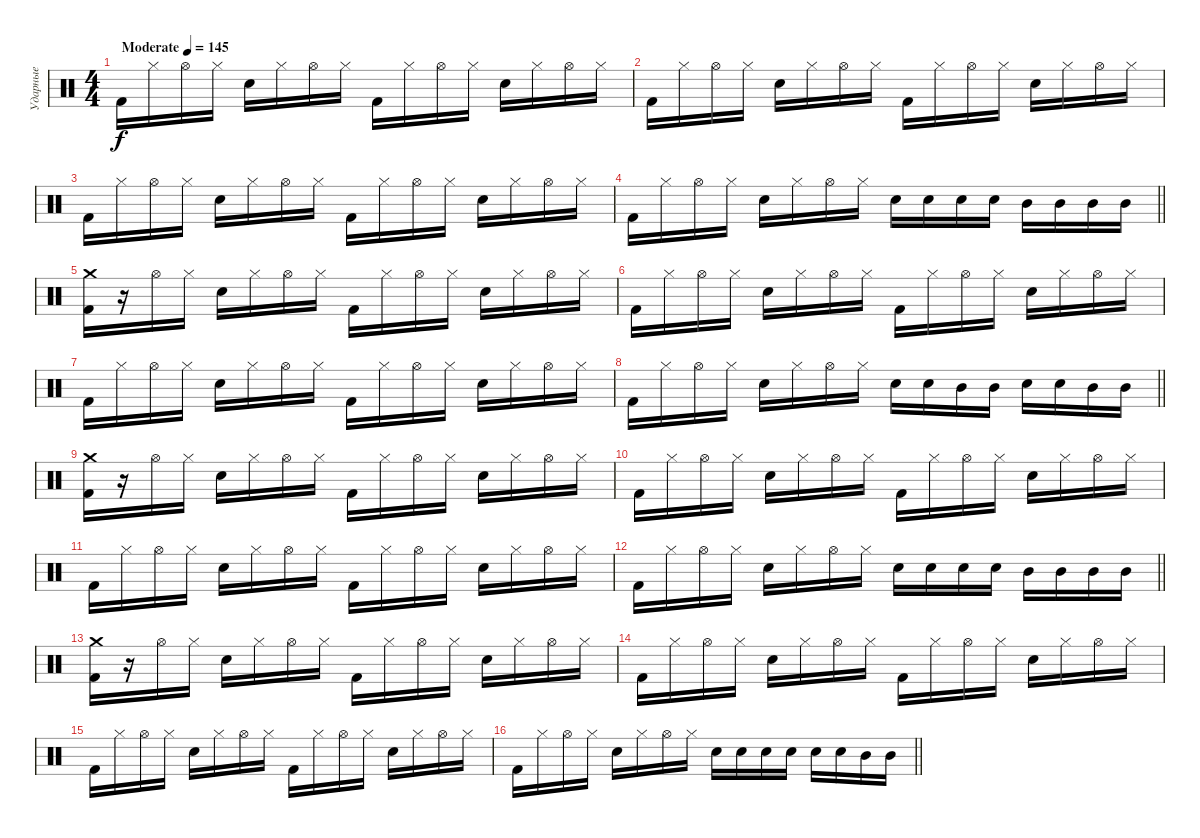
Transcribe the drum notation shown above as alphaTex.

\track ("Ударные" "Ударные") {instrument percussion}
\staff {score}
\articulation defaults
\ts (4 4)
\tempo (145 "Moderate")
\clef neutral
\ks c "Kick (hit) 2".16{dy f} "Hi-Hat (closed)".16 "Hi-Hat (open)".16 "Hi-Hat (closed)".16 "Snare (hit) 2".16 "Hi-Hat (closed)".16 "Hi-Hat (open)".16 "Hi-Hat (closed)".16 "Kick (hit) 2".16 "Hi-Hat (closed)".16 "Hi-Hat (open)".16 "Hi-Hat (closed)".16 "Snare (hit) 2".16 "Hi-Hat (closed)".16 "Hi-Hat (open)".16 "Hi-Hat (closed)".16
|
"Kick (hit) 2".16 "Hi-Hat (closed)".16 "Hi-Hat (open)".16 "Hi-Hat (closed)".16 "Snare (hit) 2".16 "Hi-Hat (closed)".16 "Hi-Hat (open)".16 "Hi-Hat (closed)".16 "Kick (hit) 2".16 "Hi-Hat (closed)".16 "Hi-Hat (open)".16 "Hi-Hat (closed)".16 "Snare (hit) 2".16 "Hi-Hat (closed)".16 "Hi-Hat (open)".16 "Hi-Hat (closed)".16 |
"Kick (hit) 2".16 "Hi-Hat (closed)".16 "Hi-Hat (open)".16 "Hi-Hat (closed)".16 "Snare (hit) 2".16 "Hi-Hat (closed)".16 "Hi-Hat (open)".16 "Hi-Hat (closed)".16 "Kick (hit) 2".16 "Hi-Hat (closed)".16 "Hi-Hat (open)".16 "Hi-Hat (closed)".16 "Snare (hit) 2".16 "Hi-Hat (closed)".16 "Hi-Hat (open)".16 "Hi-Hat (closed)".16 |
\barLineRight lightlight "Kick (hit) 2".16 "Hi-Hat (closed)".16 "Hi-Hat (open)".16 "Hi-Hat (closed)".16 "Snare (hit) 2".16 "Hi-Hat (closed)".16 "Hi-Hat (open)".16 "Hi-Hat (closed)".16 "Snare (hit) 2".16 "Snare (hit) 2".16 "Snare (hit) 2".16 "Snare (hit) 2".16 "Mid Tom (hit)".16 "Mid Tom (hit)".16 "Mid Tom (hit)".16 "Mid Tom (hit)".16
|
("Kick (hit) 2" "Crash medium (hit)").16 r.16 "Hi-Hat (open)".16 "Hi-Hat (closed)".16 "Snare (hit) 2".16 "Hi-Hat (closed)".16 "Hi-Hat (open)".16 "Hi-Hat (closed)".16 "Kick (hit) 2".16 "Hi-Hat (closed)".16 "Hi-Hat (open)".16 "Hi-Hat (closed)".16 "Snare (hit) 2".16 "Hi-Hat (closed)".16 "Hi-Hat (open)".16 "Hi-Hat (closed)".16 |
"Kick (hit) 2".16 "Hi-Hat (closed)".16 "Hi-Hat (open)".16 "Hi-Hat (closed)".16 "Snare (hit) 2".16 "Hi-Hat (closed)".16 "Hi-Hat (open)".16 "Hi-Hat (closed)".16 "Kick (hit) 2".16 "Hi-Hat (closed)".16 "Hi-Hat (open)".16 "Hi-Hat (closed)".16 "Snare (hit) 2".16 "Hi-Hat (closed)".16 "Hi-Hat (open)".16 "Hi-Hat (closed)".16 |
"Kick (hit) 2".16 "Hi-Hat (closed)".16 "Hi-Hat (open)".16 "Hi-Hat (closed)".16 "Snare (hit) 2".16 "Hi-Hat (closed)".16 "Hi-Hat (open)".16 "Hi-Hat (closed)".16 "Kick (hit) 2".16 "Hi-Hat (closed)".16 "Hi-Hat (open)".16 "Hi-Hat (closed)".16 "Snare (hit) 2".16 "Hi-Hat (closed)".16 "Hi-Hat (open)".16 "Hi-Hat (closed)".16 |
\barLineRight lightlight "Kick (hit) 2".16 "Hi-Hat (closed)".16 "Hi-Hat (open)".16 "Hi-Hat (closed)".16 "Snare (hit) 2".16 "Hi-Hat (closed)".16 "Hi-Hat (open)".16 "Hi-Hat (closed)".16 "Snare (hit) 2".16 "Snare (hit) 2".16 "Mid Tom (hit)".16 "Mid Tom (hit)".16 "Snare (hit) 2".16 "Snare (hit) 2".16 "Mid Tom (hit)".16 "Mid Tom (hit)".16
|
("Kick (hit) 2" "Crash medium (hit)").16 r.16 "Hi-Hat (open)".16 "Hi-Hat (closed)".16 "Snare (hit) 2".16 "Hi-Hat (closed)".16 "Hi-Hat (open)".16 "Hi-Hat (closed)".16 "Kick (hit) 2".16 "Hi-Hat (closed)".16 "Hi-Hat (open)".16 "Hi-Hat (closed)".16 "Snare (hit) 2".16 "Hi-Hat (closed)".16 "Hi-Hat (open)".16 "Hi-Hat (closed)".16 |
"Kick (hit) 2".16 "Hi-Hat (closed)".16 "Hi-Hat (open)".16 "Hi-Hat (closed)".16 "Snare (hit) 2".16 "Hi-Hat (closed)".16 "Hi-Hat (open)".16 "Hi-Hat (closed)".16 "Kick (hit) 2".16 "Hi-Hat (closed)".16 "Hi-Hat (open)".16 "Hi-Hat (closed)".16 "Snare (hit) 2".16 "Hi-Hat (closed)".16 "Hi-Hat (open)".16 "Hi-Hat (closed)".16 |
"Kick (hit) 2".16 "Hi-Hat (closed)".16 "Hi-Hat (open)".16 "Hi-Hat (closed)".16 "Snare (hit) 2".16 "Hi-Hat (closed)".16 "Hi-Hat (open)".16 "Hi-Hat (closed)".16 "Kick (hit) 2".16 "Hi-Hat (closed)".16 "Hi-Hat (open)".16 "Hi-Hat (closed)".16 "Snare (hit) 2".16 "Hi-Hat (closed)".16 "Hi-Hat (open)".16 "Hi-Hat (closed)".16 |
\barLineRight lightlight "Kick (hit) 2".16 "Hi-Hat (closed)".16 "Hi-Hat (open)".16 "Hi-Hat (closed)".16 "Snare (hit) 2".16 "Hi-Hat (closed)".16 "Hi-Hat (open)".16 "Hi-Hat (closed)".16 "Snare (hit) 2".16 "Snare (hit) 2".16 "Snare (hit) 2".16 "Snare (hit) 2".16 "Mid Tom (hit)".16 "Mid Tom (hit)".16 "Mid Tom (hit)".16 "Mid Tom (hit)".16
|
("Kick (hit) 2" "Crash medium (hit)").16 r.16 "Hi-Hat (open)".16 "Hi-Hat (closed)".16 "Snare (hit) 2".16 "Hi-Hat (closed)".16 "Hi-Hat (open)".16 "Hi-Hat (closed)".16 "Kick (hit) 2".16 "Hi-Hat (closed)".16 "Hi-Hat (open)".16 "Hi-Hat (closed)".16 "Snare (hit) 2".16 "Hi-Hat (closed)".16 "Hi-Hat (open)".16 "Hi-Hat (closed)".16 |
"Kick (hit) 2".16 "Hi-Hat (closed)".16 "Hi-Hat (open)".16 "Hi-Hat (closed)".16 "Snare (hit) 2".16 "Hi-Hat (closed)".16 "Hi-Hat (open)".16 "Hi-Hat (closed)".16 "Kick (hit) 2".16 "Hi-Hat (closed)".16 "Hi-Hat (open)".16 "Hi-Hat (closed)".16 "Snare (hit) 2".16 "Hi-Hat (closed)".16 "Hi-Hat (open)".16 "Hi-Hat (closed)".16 |
"Kick (hit) 2".16 "Hi-Hat (closed)".16 "Hi-Hat (open)".16 "Hi-Hat (closed)".16 "Snare (hit) 2".16 "Hi-Hat (closed)".16 "Hi-Hat (open)".16 "Hi-Hat (closed)".16 "Kick (hit) 2".16 "Hi-Hat (closed)".16 "Hi-Hat (open)".16 "Hi-Hat (closed)".16 "Snare (hit) 2".16 "Hi-Hat (closed)".16 "Hi-Hat (open)".16 "Hi-Hat (closed)".16 |
\barLineRight lightlight "Kick (hit) 2".16 "Hi-Hat (closed)".16 "Hi-Hat (open)".16 "Hi-Hat (closed)".16 "Snare (hit) 2".16 "Hi-Hat (closed)".16 "Hi-Hat (open)".16 "Hi-Hat (closed)".16 "Snare (hit) 2".16 "Snare (hit) 2".16 "Snare (hit) 2".16 "Snare (hit) 2".16 "Snare (hit) 2".16 "Snare (hit) 2".16 "Mid Tom (hit)".16 "Mid Tom (hit)".16
